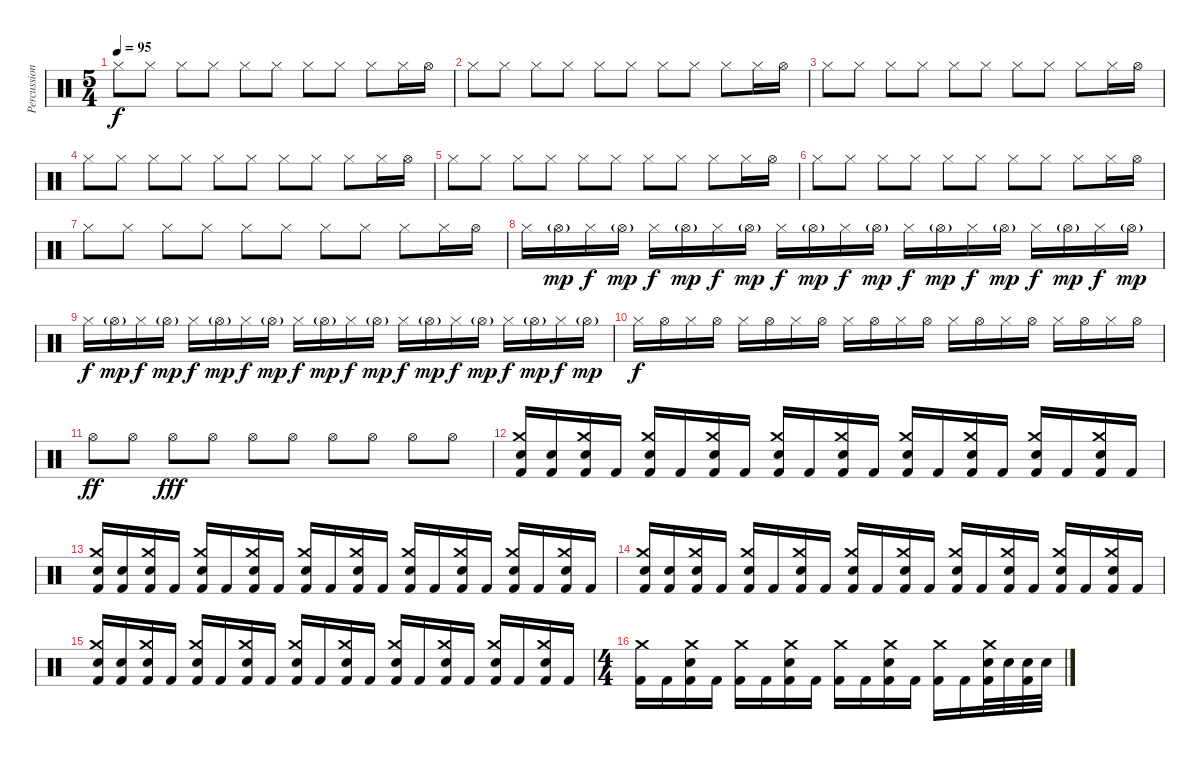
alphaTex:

\track ("Percussions" "Percussion") {instrument percussion}
\staff {score}
\articulation defaults
\ts (5 4)
\tempo 95
\clef neutral
\ks c "Hi-Hat (closed)".8{dy f} "Hi-Hat (closed)".8 "Hi-Hat (closed)".8 "Hi-Hat (closed)".8 "Hi-Hat (closed)".8 "Hi-Hat (closed)".8 "Hi-Hat (closed)".8 "Hi-Hat (closed)".8 "Hi-Hat (closed)".8 "Hi-Hat (closed)".16 "Hi-Hat (open)".16
|
"Hi-Hat (closed)".8 "Hi-Hat (closed)".8 "Hi-Hat (closed)".8 "Hi-Hat (closed)".8 "Hi-Hat (closed)".8 "Hi-Hat (closed)".8 "Hi-Hat (closed)".8 "Hi-Hat (closed)".8 "Hi-Hat (closed)".8 "Hi-Hat (closed)".16 "Hi-Hat (open)".16 |
"Hi-Hat (closed)".8 "Hi-Hat (closed)".8 "Hi-Hat (closed)".8 "Hi-Hat (closed)".8 "Hi-Hat (closed)".8 "Hi-Hat (closed)".8 "Hi-Hat (closed)".8 "Hi-Hat (closed)".8 "Hi-Hat (closed)".8 "Hi-Hat (closed)".16 "Hi-Hat (open)".16 |
"Hi-Hat (closed)".8 "Hi-Hat (closed)".8 "Hi-Hat (closed)".8 "Hi-Hat (closed)".8 "Hi-Hat (closed)".8 "Hi-Hat (closed)".8 "Hi-Hat (closed)".8 "Hi-Hat (closed)".8 "Hi-Hat (closed)".8 "Hi-Hat (closed)".16 "Hi-Hat (open)".16 |
"Hi-Hat (closed)".8 "Hi-Hat (closed)".8 "Hi-Hat (closed)".8 "Hi-Hat (closed)".8 "Hi-Hat (closed)".8 "Hi-Hat (closed)".8 "Hi-Hat (closed)".8 "Hi-Hat (closed)".8 "Hi-Hat (closed)".8 "Hi-Hat (closed)".16 "Hi-Hat (open)".16 |
"Hi-Hat (closed)".8 "Hi-Hat (closed)".8 "Hi-Hat (closed)".8 "Hi-Hat (closed)".8 "Hi-Hat (closed)".8 "Hi-Hat (closed)".8 "Hi-Hat (closed)".8 "Hi-Hat (closed)".8 "Hi-Hat (closed)".8 "Hi-Hat (closed)".16 "Hi-Hat (open)".16 |
"Hi-Hat (closed)".8 "Hi-Hat (closed)".8 "Hi-Hat (closed)".8 "Hi-Hat (closed)".8 "Hi-Hat (closed)".8 "Hi-Hat (closed)".8 "Hi-Hat (closed)".8 "Hi-Hat (closed)".8 "Hi-Hat (closed)".8 "Hi-Hat (closed)".16 "Hi-Hat (open)".16 |
"Hi-Hat (closed)".16 "Hi-Hat (open)"{g}.16{dy mp} "Hi-Hat (closed)".16{dy f} "Hi-Hat (open)"{g}.16{dy mp} "Hi-Hat (closed)".16{dy f} "Hi-Hat (open)"{g}.16{dy mp} "Hi-Hat (closed)".16{dy f} "Hi-Hat (open)"{g}.16{dy mp} "Hi-Hat (closed)".16{dy f} "Hi-Hat (open)"{g}.16{dy mp} "Hi-Hat (closed)".16{dy f} "Hi-Hat (open)"{g}.16{dy mp} "Hi-Hat (closed)".16{dy f} "Hi-Hat (open)"{g}.16{dy mp} "Hi-Hat (closed)".16{dy f} "Hi-Hat (open)"{g}.16{dy mp} "Hi-Hat (closed)".16{dy f} "Hi-Hat (open)"{g}.16{dy mp} "Hi-Hat (closed)".16{dy f} "Hi-Hat (open)"{g}.16{dy mp} |
"Hi-Hat (closed)".16{dy f} "Hi-Hat (open)"{g}.16{dy mp} "Hi-Hat (closed)".16{dy f} "Hi-Hat (open)"{g}.16{dy mp} "Hi-Hat (closed)".16{dy f} "Hi-Hat (open)"{g}.16{dy mp} "Hi-Hat (closed)".16{dy f} "Hi-Hat (open)"{g}.16{dy mp} "Hi-Hat (closed)".16{dy f} "Hi-Hat (open)"{g}.16{dy mp} "Hi-Hat (closed)".16{dy f} "Hi-Hat (open)"{g}.16{dy mp} "Hi-Hat (closed)".16{dy f} "Hi-Hat (open)"{g}.16{dy mp} "Hi-Hat (closed)".16{dy f} "Hi-Hat (open)"{g}.16{dy mp} "Hi-Hat (closed)".16{dy f} "Hi-Hat (open)"{g}.16{dy mp} "Hi-Hat (closed)".16{dy f} "Hi-Hat (open)"{g}.16{dy mp} |
"Hi-Hat (closed)".16{dy f} "Hi-Hat (open)".16 "Hi-Hat (closed)".16 "Hi-Hat (open)".16 "Hi-Hat (closed)".16 "Hi-Hat (open)".16 "Hi-Hat (closed)".16 "Hi-Hat (open)".16 "Hi-Hat (closed)".16 "Hi-Hat (open)".16 "Hi-Hat (closed)".16 "Hi-Hat (open)".16 "Hi-Hat (closed)".16 "Hi-Hat (open)".16 "Hi-Hat (closed)".16 "Hi-Hat (open)".16 "Hi-Hat (closed)".16 "Hi-Hat (open)".16 "Hi-Hat (closed)".16 "Hi-Hat (open)".16 |
"Hi-Hat (open)".8{dy ff} "Hi-Hat (open)".8 "Hi-Hat (open)".8{dy fff} "Hi-Hat (open)".8 "Hi-Hat (open)".8 "Hi-Hat (open)".8 "Hi-Hat (open)".8 "Hi-Hat (open)".8 "Hi-Hat (open)".8 "Hi-Hat (open)".8 |
("Electric Snare (hit)" "Crash medium (hit)" "Kick (hit) 2").16 ("Electric Snare (hit)" "Kick (hit) 2").16 ("Electric Snare (hit)" "Crash medium (hit)" "Kick (hit) 2").16 "Kick (hit) 2".16 ("Electric Snare (hit)" "Crash medium (hit)" "Kick (hit) 2").16 "Kick (hit) 2".16 ("Electric Snare (hit)" "Crash medium (hit)" "Kick (hit) 2").16 "Kick (hit) 2".16 ("Electric Snare (hit)" "Crash medium (hit)" "Kick (hit) 2").16 "Kick (hit) 2".16 ("Electric Snare (hit)" "Crash medium (hit)" "Kick (hit) 2").16 "Kick (hit) 2".16 ("Electric Snare (hit)" "Crash medium (hit)" "Kick (hit) 2").16 "Kick (hit) 2".16 ("Electric Snare (hit)" "Crash medium (hit)" "Kick (hit) 2").16 "Kick (hit) 2".16 ("Electric Snare (hit)" "Crash medium (hit)" "Kick (hit) 2").16 "Kick (hit) 2".16 ("Electric Snare (hit)" "Crash medium (hit)" "Kick (hit) 2").16 "Kick (hit) 2".16 |
("Electric Snare (hit)" "Crash medium (hit)" "Kick (hit) 2").16 ("Electric Snare (hit)" "Kick (hit) 2").16 ("Electric Snare (hit)" "Crash medium (hit)" "Kick (hit) 2").16 "Kick (hit) 2".16 ("Electric Snare (hit)" "Crash medium (hit)" "Kick (hit) 2").16 "Kick (hit) 2".16 ("Electric Snare (hit)" "Crash medium (hit)" "Kick (hit) 2").16 "Kick (hit) 2".16 ("Electric Snare (hit)" "Crash medium (hit)" "Kick (hit) 2").16 "Kick (hit) 2".16 ("Electric Snare (hit)" "Crash medium (hit)" "Kick (hit) 2").16 "Kick (hit) 2".16 ("Electric Snare (hit)" "Crash medium (hit)" "Kick (hit) 2").16 "Kick (hit) 2".16 ("Electric Snare (hit)" "Crash medium (hit)" "Kick (hit) 2").16 "Kick (hit) 2".16 ("Electric Snare (hit)" "Crash medium (hit)" "Kick (hit) 2").16 "Kick (hit) 2".16 ("Electric Snare (hit)" "Crash medium (hit)" "Kick (hit) 2").16 "Kick (hit) 2".16 |
("Electric Snare (hit)" "Crash medium (hit)" "Kick (hit) 2").16 ("Electric Snare (hit)" "Kick (hit) 2").16 ("Electric Snare (hit)" "Crash medium (hit)" "Kick (hit) 2").16 "Kick (hit) 2".16 ("Electric Snare (hit)" "Crash medium (hit)" "Kick (hit) 2").16 "Kick (hit) 2".16 ("Electric Snare (hit)" "Crash medium (hit)" "Kick (hit) 2").16 "Kick (hit) 2".16 ("Electric Snare (hit)" "Crash medium (hit)" "Kick (hit) 2").16 "Kick (hit) 2".16 ("Electric Snare (hit)" "Crash medium (hit)" "Kick (hit) 2").16 "Kick (hit) 2".16 ("Electric Snare (hit)" "Crash medium (hit)" "Kick (hit) 2").16 "Kick (hit) 2".16 ("Electric Snare (hit)" "Crash medium (hit)" "Kick (hit) 2").16 "Kick (hit) 2".16 ("Electric Snare (hit)" "Crash medium (hit)" "Kick (hit) 2").16 "Kick (hit) 2".16 ("Electric Snare (hit)" "Crash medium (hit)" "Kick (hit) 2").16 "Kick (hit) 2".16 |
("Electric Snare (hit)" "Crash medium (hit)" "Kick (hit) 2").16 ("Electric Snare (hit)" "Kick (hit) 2").16 ("Electric Snare (hit)" "Crash medium (hit)" "Kick (hit) 2").16 "Kick (hit) 2".16 ("Electric Snare (hit)" "Crash medium (hit)" "Kick (hit) 2").16 "Kick (hit) 2".16 ("Electric Snare (hit)" "Crash medium (hit)" "Kick (hit) 2").16 "Kick (hit) 2".16 ("Electric Snare (hit)" "Crash medium (hit)" "Kick (hit) 2").16 "Kick (hit) 2".16 ("Electric Snare (hit)" "Crash medium (hit)" "Kick (hit) 2").16 "Kick (hit) 2".16 ("Electric Snare (hit)" "Crash medium (hit)" "Kick (hit) 2").16 "Kick (hit) 2".16 ("Electric Snare (hit)" "Crash medium (hit)" "Kick (hit) 2").16 "Kick (hit) 2".16 ("Electric Snare (hit)" "Crash medium (hit)" "Kick (hit) 2").16 "Kick (hit) 2".16 ("Electric Snare (hit)" "Crash medium (hit)" "Kick (hit) 2").16 "Kick (hit) 2".16 |
\ts (4 4)
("Crash medium (hit)" "Kick (hit) 2").16 "Kick (hit) 2".16 ("Electric Snare (hit)" "Crash medium (hit)" "Kick (hit) 2").16 "Kick (hit) 2".16 ("Crash medium (hit)" "Kick (hit) 2").16 "Kick (hit) 2".16 ("Electric Snare (hit)" "Crash medium (hit)" "Kick (hit) 2").16 "Kick (hit) 2".16 ("Crash medium (hit)" "Kick (hit) 2").16 "Kick (hit) 2".16 ("Electric Snare (hit)" "Crash medium (hit)" "Kick (hit) 2").16 "Kick (hit) 2".16 ("Crash medium (hit)" "Kick (hit) 2").16 "Kick (hit) 2".16 ("Electric Snare (hit)" "Crash medium (hit)" "Kick (hit) 2").32 "Electric Snare (hit)".32 ("Electric Snare (hit)" "Kick (hit) 2").32 "Electric Snare (hit)".32
